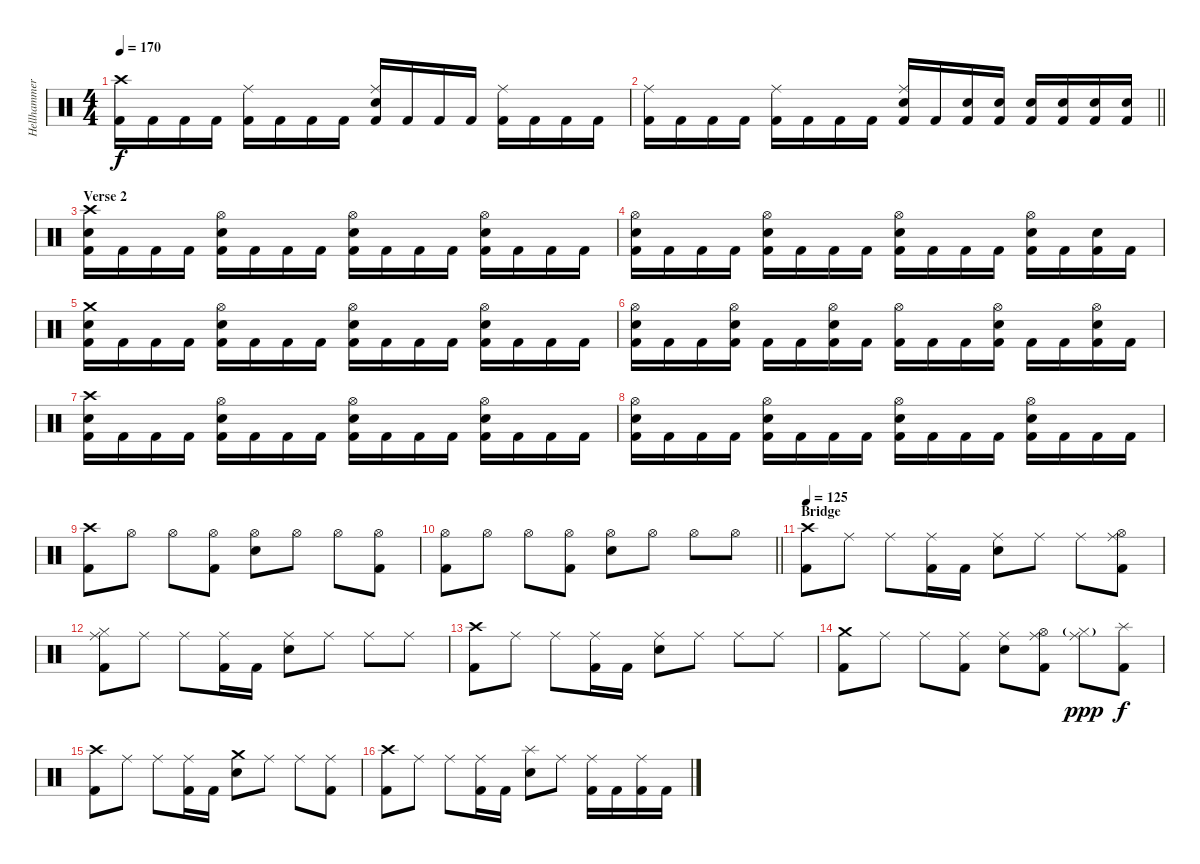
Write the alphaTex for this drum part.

\track ("Hellhammer" "Hellhammer") {instrument percussion}
\staff {score}
\articulation defaults
\ts (4 4)
\tempo 170
\clef neutral
\ks c
("Crash high (hit)" "Kick (hit) 2").16{dy f} "Kick (hit) 2".16 "Kick (hit) 2".16 "Kick (hit) 2".16 ("Ride (middle)" "Kick (hit) 2").16 "Kick (hit) 2".16 "Kick (hit) 2".16 "Kick (hit) 2".16 ("Ride (middle)" "Snare (hit) 2" "Kick (hit) 2").16 "Kick (hit) 2".16 "Kick (hit) 2".16 "Kick (hit) 2".16 ("Ride (middle)" "Kick (hit) 2").16 "Kick (hit) 2".16 "Kick (hit) 2".16 "Kick (hit) 2".16 |
\barLineRight lightlight
("Ride (middle)" "Kick (hit) 2").16 "Kick (hit) 2".16 "Kick (hit) 2".16 "Kick (hit) 2".16 ("Ride (middle)" "Kick (hit) 2").16 "Kick (hit) 2".16 "Kick (hit) 2".16 "Kick (hit) 2".16 ("Ride (middle)" "Snare (hit) 2" "Kick (hit) 2").16 "Kick (hit) 2".16 ("Snare (hit) 2" "Kick (hit) 2").16 ("Snare (hit) 2" "Kick (hit) 2").16 ("Snare (hit) 2" "Kick (hit) 2").16 ("Snare (hit) 2" "Kick (hit) 2").16 ("Snare (hit) 2" "Kick (hit) 2").16 ("Snare (hit) 2" "Kick (hit) 2").16 |
\section ("" "Verse 2")
("Crash high (hit)" "Snare (hit) 2" "Kick (hit) 2").16 "Kick (hit) 2".16 "Kick (hit) 2".16 "Kick (hit) 2".16 ("Hi-Hat (open)" "Snare (hit) 2" "Kick (hit) 2").16 "Kick (hit) 2".16 "Kick (hit) 2".16 "Kick (hit) 2".16 ("Hi-Hat (open)" "Snare (hit) 2" "Kick (hit) 2").16 "Kick (hit) 2".16 "Kick (hit) 2".16 "Kick (hit) 2".16 ("Hi-Hat (open)" "Snare (hit) 2" "Kick (hit) 2").16 "Kick (hit) 2".16 "Kick (hit) 2".16 "Kick (hit) 2".16 |
("Hi-Hat (open)" "Snare (hit) 2" "Kick (hit) 2").16 "Kick (hit) 2".16 "Kick (hit) 2".16 "Kick (hit) 2".16 ("Hi-Hat (open)" "Snare (hit) 2" "Kick (hit) 2").16 "Kick (hit) 2".16 "Kick (hit) 2".16 "Kick (hit) 2".16 ("Hi-Hat (open)" "Snare (hit) 2" "Kick (hit) 2").16 "Kick (hit) 2".16 "Kick (hit) 2".16 "Kick (hit) 2".16 ("Hi-Hat (open)" "Snare (hit) 2" "Kick (hit) 2").16 "Kick (hit) 2".16 ("Snare (hit) 2" "Kick (hit) 2").16 "Kick (hit) 2".16 |
("Crash medium (hit)" "Snare (hit) 2" "Kick (hit) 2").16 "Kick (hit) 2".16 "Kick (hit) 2".16 "Kick (hit) 2".16 ("Hi-Hat (open)" "Snare (hit) 2" "Kick (hit) 2").16 "Kick (hit) 2".16 "Kick (hit) 2".16 "Kick (hit) 2".16 ("Hi-Hat (open)" "Snare (hit) 2" "Kick (hit) 2").16 "Kick (hit) 2".16 "Kick (hit) 2".16 "Kick (hit) 2".16 ("Hi-Hat (open)" "Snare (hit) 2" "Kick (hit) 2").16 "Kick (hit) 2".16 "Kick (hit) 2".16 "Kick (hit) 2".16 |
("Hi-Hat (open)" "Snare (hit) 2" "Kick (hit) 2").16 "Kick (hit) 2".16 "Kick (hit) 2".16 ("Hi-Hat (open)" "Snare (hit) 2" "Kick (hit) 2").16 "Kick (hit) 2".16 "Kick (hit) 2".16 ("Hi-Hat (open)" "Snare (hit) 2" "Kick (hit) 2").16 "Kick (hit) 2".16 ("Hi-Hat (open)" "Kick (hit) 2").16 "Kick (hit) 2".16 "Kick (hit) 2".16 ("Hi-Hat (open)" "Snare (hit) 2" "Kick (hit) 2").16 "Kick (hit) 2".16 "Kick (hit) 2".16 ("Hi-Hat (open)" "Snare (hit) 2" "Kick (hit) 2").16 "Kick (hit) 2".16 |
("Crash high (hit)" "Snare (hit) 2" "Kick (hit) 2").16 "Kick (hit) 2".16 "Kick (hit) 2".16 "Kick (hit) 2".16 ("Hi-Hat (open)" "Snare (hit) 2" "Kick (hit) 2").16 "Kick (hit) 2".16 "Kick (hit) 2".16 "Kick (hit) 2".16 ("Hi-Hat (open)" "Snare (hit) 2" "Kick (hit) 2").16 "Kick (hit) 2".16 "Kick (hit) 2".16 "Kick (hit) 2".16 ("Hi-Hat (open)" "Snare (hit) 2" "Kick (hit) 2").16 "Kick (hit) 2".16 "Kick (hit) 2".16 "Kick (hit) 2".16 |
("Hi-Hat (open)" "Snare (hit) 2" "Kick (hit) 2").16 "Kick (hit) 2".16 "Kick (hit) 2".16 "Kick (hit) 2".16 ("Hi-Hat (open)" "Snare (hit) 2" "Kick (hit) 2").16 "Kick (hit) 2".16 "Kick (hit) 2".16 "Kick (hit) 2".16 ("Hi-Hat (open)" "Snare (hit) 2" "Kick (hit) 2").16 "Kick (hit) 2".16 "Kick (hit) 2".16 "Kick (hit) 2".16 ("Hi-Hat (open)" "Snare (hit) 2" "Kick (hit) 2").16 "Kick (hit) 2".16 "Kick (hit) 2".16 "Kick (hit) 2".16 |
("Crash high (hit)" "Kick (hit) 2").8 "Hi-Hat (open)".8 "Hi-Hat (open)".8 ("Hi-Hat (open)" "Kick (hit) 2").8 ("Hi-Hat (open)" "Snare (hit) 2").8 "Hi-Hat (open)".8 "Hi-Hat (open)".8 ("Hi-Hat (open)" "Kick (hit) 2").8 |
\barLineRight lightlight
("Hi-Hat (open)" "Kick (hit) 2").8 "Hi-Hat (open)".8 "Hi-Hat (open)".8 ("Hi-Hat (open)" "Kick (hit) 2").8 ("Hi-Hat (open)" "Snare (hit) 2").8 "Hi-Hat (open)".8 "Hi-Hat (open)".8 "Hi-Hat (open)".8 |
\section ("" "Bridge")
\tempo 125
("Crash high (hit)" "Kick (hit) 2").8 "Ride (middle)".8 "Ride (middle)".8 ("Ride (middle)" "Kick (hit) 2").16 "Kick (hit) 2".16 ("Ride (middle)" "Snare (hit) 2").8 "Ride (middle)".8 "Ride (middle)".8 ("Ride (middle)" "Hi-Hat (open)" "Kick (hit) 2").8 |
("Ride (middle)" "Hi-Hat (closed)" "Kick (hit) 2").8 "Ride (middle)".8 "Ride (middle)".8 ("Ride (middle)" "Kick (hit) 2").16 "Kick (hit) 2".16 ("Ride (middle)" "Snare (hit) 2").8 "Ride (middle)".8 "Ride (middle)".8 "Ride (middle)".8 |
("Crash high (hit)" "Kick (hit) 2").8 "Ride (middle)".8 "Ride (middle)".8 ("Ride (middle)" "Kick (hit) 2").16 "Kick (hit) 2".16 ("Ride (middle)" "Snare (hit) 2").8 "Ride (middle)".8 "Ride (middle)".8 "Ride (middle)".8 |
("Crash medium (hit)" "Kick (hit) 2").8 "Ride (middle)".8 "Ride (middle)".8 ("Ride (middle)" "Kick (hit) 2").8 ("Ride (middle)" "Snare (hit) 2").8 ("Ride (middle)" "Hi-Hat (open)" "Kick (hit) 2").8 ("Ride (middle)" "Hi-Hat (closed)"{g}).8{dy ppp} ("Splash (hit)" "Kick (hit) 2").8{dy f} |
("Crash high (hit)" "Kick (hit) 2").8 "Ride (middle)".8 "Ride (middle)".8 ("Ride (middle)" "Kick (hit) 2").16 "Kick (hit) 2".16 ("Crash medium (hit)" "Snare (hit) 2").8 "Ride (middle)".8 "Ride (middle)".8 ("Ride (middle)" "Kick (hit) 2").8 |
("Crash high (hit)" "Kick (hit) 2").8 "Ride (middle)".8 "Ride (middle)".8 ("Ride (middle)" "Kick (hit) 2").16 "Kick (hit) 2".16 ("Splash (hit)" "Snare (hit) 2").8 "Ride (middle)".8 ("Ride (middle)" "Kick (hit) 2").16 "Kick (hit) 2".16 ("Ride (middle)" "Kick (hit) 2").16 "Kick (hit) 2".16
